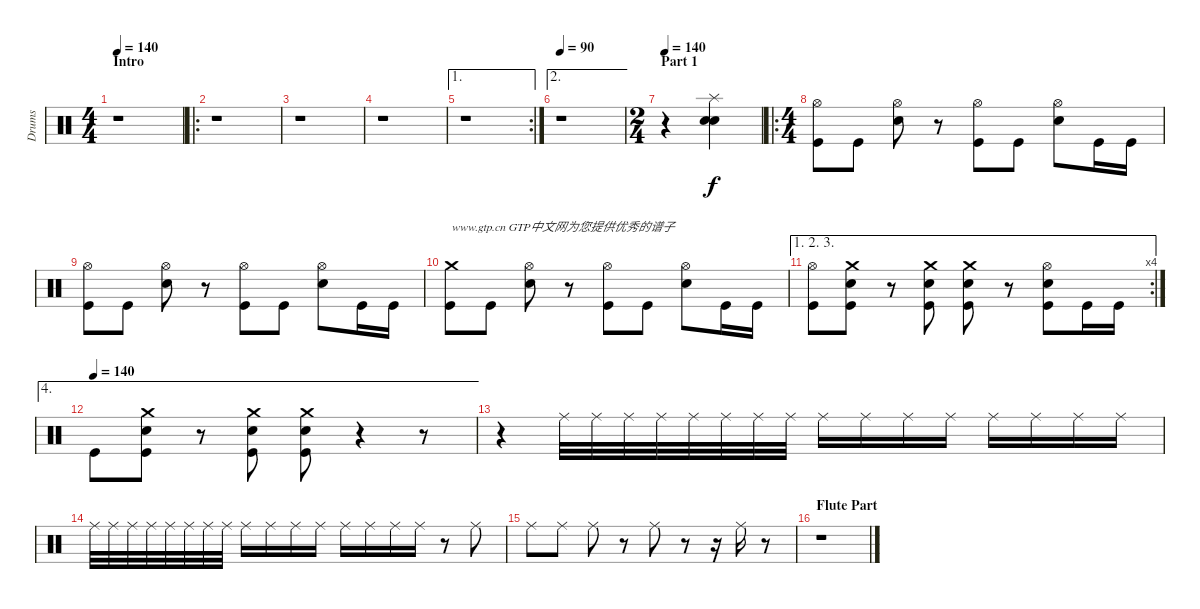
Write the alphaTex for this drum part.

\track ("Drums" "Drums") {instrument percussion}
\staff {score}
\articulation defaults
\ts (4 4)
\section ("" "Intro")
\tempo 140
\tempo 100
\tempo 140
\clef neutral
\ks c
r.1{dy f} |
\ro
r.1 |
r.1 |
r.1 |
\ae 1
\rc 2
r.1 |
\ae 2
\tempo 90
r.1 |
\ts (2 4)
\section ("" "Part 1")
\tempo 140
r.4 ("Splash (hit)" "Snare (hit) 2" "Electric Snare (hit)").4 |
\ro
\ts (4 4)
("Kick (hit)" "Hi-Hat (open)").8 "Kick (hit)".8 ("Snare (hit) 2" "Hi-Hat (open)").8 r.8 ("Kick (hit)" "Hi-Hat (open)").8 "Kick (hit)".8 ("Snare (hit) 2" "Hi-Hat (open)").8 "Kick (hit)".16 "Kick (hit)".16 |
("Kick (hit)" "Hi-Hat (open)").8 "Kick (hit)".8 ("Snare (hit) 2" "Hi-Hat (open)").8 r.8 ("Kick (hit)" "Hi-Hat (open)").8 "Kick (hit)".8 ("Snare (hit) 2" "Hi-Hat (open)").8 "Kick (hit)".16 "Kick (hit)".16 |
("Kick (hit)" "Crash medium (hit)").8{txt "www.gtp.cn GTP中文网为您提供优秀的谱子"} "Kick (hit)".8 ("Snare (hit) 2" "Hi-Hat (open)").8 r.8 ("Kick (hit)" "Hi-Hat (open)").8 "Kick (hit)".8 ("Snare (hit) 2" "Hi-Hat (open)").8 "Kick (hit)".16 "Kick (hit)".16 |
\ae (1 2 3)
\rc 4
("Kick (hit)" "Hi-Hat (open)").8 ("Kick (hit)" "Crash medium (hit)" "Electric Snare (hit)").8 r.8 ("Kick (hit)" "Crash medium (hit)" "Electric Snare (hit)").8 ("Kick (hit)" "Crash medium (hit)" "Electric Snare (hit)").8 r.8 ("Kick (hit)" "Snare (hit) 2" "Hi-Hat (open)").8 "Kick (hit)".16 "Kick (hit)".16 |
\ae 4
\tempo (140)
"Kick (hit)".8 ("Kick (hit)" "Crash medium (hit)" "Electric Snare (hit)").8 r.8 ("Kick (hit)" "Crash medium (hit)" "Electric Snare (hit)").8 ("Kick (hit)" "Crash medium (hit)" "Electric Snare (hit)").8 r.4 r.8{volume 8} |
r.4 "Ride (middle)".32{volume 14} "Ride (middle)".32 "Ride (middle)".32 "Ride (middle)".32 "Ride (middle)".32 "Ride (middle)".32 "Ride (middle)".32 "Ride (middle)".32 "Ride (middle)".16{volume 8} "Ride (middle)".16 "Ride (middle)".16 "Ride (middle)".16 "Ride (middle)".16 "Ride (middle)".16 "Ride (middle)".16 "Ride (middle)".16 |
"Ride (middle)".32 "Ride (middle)".32 "Ride (middle)".32 "Ride (middle)".32 "Ride (middle)".32 "Ride (middle)".32 "Ride (middle)".32 "Ride (middle)".32 "Ride (middle)".16 "Ride (middle)".16 "Ride (middle)".16 "Ride (middle)".16 "Ride (middle)".16 "Ride (middle)".16 "Ride (middle)".16 "Ride (middle)".16 r.8 "Ride (middle)".8{volume 8} |
"Ride (middle)".8 "Ride (middle)".8 "Ride (middle)".8{volume 8} r.8 "Ride (middle)".8 r.8 r.16 "Ride (middle)".16 r.8 |
\section ("" "Flute Part")
r.1
